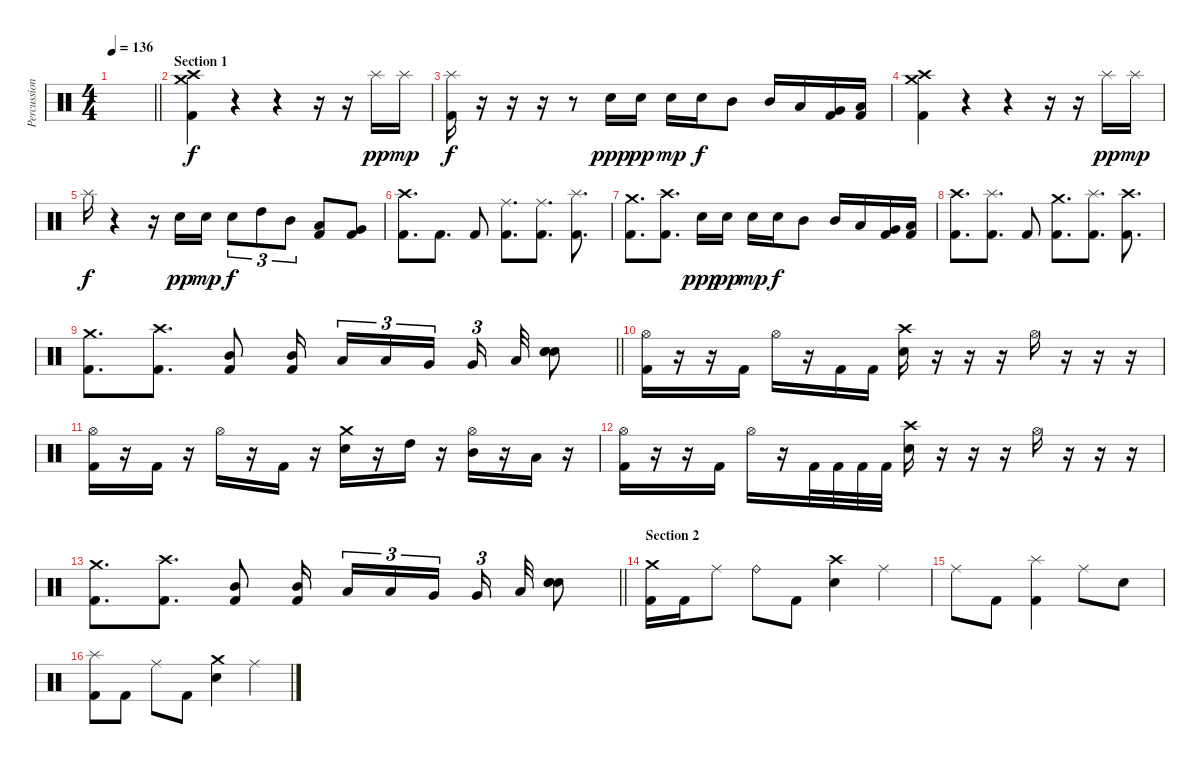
\track ("Percussion" "Percussion") {instrument percussion}
\staff {score}
\articulation defaults
\ts (4 4)
\tempo 136
\clef neutral
\barLineRight lightlight
\ks c
|
\section ("" "Section 1")
("Crash high (hit)" "Crash medium (hit)" "Kick (hit) 2").4 r.4 r.4 r.16 r.16 "Splash (hit)".16{dy pp} "Splash (hit)".16{dy mp} |
("Splash (hit)" "Kick (hit) 2").16{dy f} r.16 r.16 r.16 r.8 "Electric Snare (hit)".16{dy ppp} "Electric Snare (hit)".16{dy pp} "Electric Snare (hit)".16{dy mp} "Electric Snare (hit)".16{dy f} "Mid Tom (hit)".8 "Mid Tom (hit)".16 "Low Tom (hit)".16 ("Very Low Tom (hit)" "Kick (hit) 2").16 ("Low Floor Tom (hit)" "Kick (hit) 2").16 |
("Crash medium (hit)" "Crash high (hit)" "Kick (hit) 2").4 r.4 r.4 r.16 r.16 "Splash (hit)".16{dy pp} "Splash (hit)".16{dy mp} |
"Splash (hit)".16{dy f} r.4 r.16 "Electric Snare (hit)".16{dy pp} "Electric Snare (hit)".16{dy mp} "Electric Snare (hit)".8{tu (3 2) dy f} "High Tom (hit)".8{tu (3 2)} "Mid Tom (hit)".8{tu (3 2)} ("Low Tom (hit)" "Kick (hit) 2").8 ("Very Low Tom (hit)" "Kick (hit) 2").8 |
("Crash high (hit)" "Kick (hit) 2").8{d} "Kick (hit) 2".8{d} "Kick (hit) 2".8 ("Ride (middle)" "Kick (hit) 2").8{d} ("Ride (middle)" "Kick (hit) 2").8{d} ("Splash (hit)" "Kick (hit) 2").8{d} |
("Crash medium (hit)" "Kick (hit) 2").8{d} ("Crash high (hit)" "Kick (hit) 2").8{d} "Electric Snare (hit)".16{dy ppp} "Electric Snare (hit)".16{dy pp} "Electric Snare (hit)".16{dy mp} "Electric Snare (hit)".16{dy f} "Mid Tom (hit)".8 "Mid Tom (hit)".16 "Low Tom (hit)".16 ("Very Low Tom (hit)" "Kick (hit) 2").16 ("Low Floor Tom (hit)" "Kick (hit) 2").16 |
("Crash high (hit)" "Kick (hit) 2").8{d} ("Splash (hit)" "Kick (hit) 2").8{d} "Kick (hit) 2".8 ("Crash medium (hit)" "Kick (hit) 2").8{d} ("Splash (hit)" "Kick (hit) 2").8{d} ("Crash high (hit)" "Kick (hit) 2").8{d} |
\barLineRight lightlight
("Crash medium (hit)" "Kick (hit) 2").8{d} ("Crash high (hit)" "Kick (hit) 2").8{d} ("Mid Tom (hit)" "Kick (hit) 2").8 ("Mid Tom (hit)" "Kick (hit) 2").16{beam splitsecondary} "Low Tom (hit)".16{tu (3 2)} "Low Tom (hit)".16{tu (3 2)} "Very Low Tom (hit)".16{tu (3 2) beam splitsecondary} "Very Low Tom (hit)".16{tu (3 2)} "Low Floor Tom (hit)".32 ("Snare (hit) 2" "Snare (hit) 2" "Electric Snare (hit)").8 |
("Hi-Hat (open)" "Kick (hit) 2").16 r.16 r.16 "Kick (hit) 2".16 "Hi-Hat (open)".16 r.16 "Kick (hit) 2".16 "Kick (hit) 2".16 ("Crash high (hit)" "Electric Snare (hit)").16 r.16 r.16 r.16 "Hi-Hat (open)".16 r.16 r.16 r.16 |
("Hi-Hat (open)" "Kick (hit) 2").16 r.16 "Kick (hit) 2".16 r.16 "Hi-Hat (open)".16 r.16 "Kick (hit) 2".16 r.16 ("Crash medium (hit)" "Electric Snare (hit)").16 r.16 "High Tom (hit)".16 r.16 ("Hi-Hat (open)" "Mid Tom (hit)").16 r.16 "Low Tom (hit)".16 r.16 |
("Hi-Hat (open)" "Kick (hit) 2").16 r.16 r.16 "Kick (hit) 2".16 "Hi-Hat (open)".16 r.16 "Kick (hit) 2".32 "Kick (hit) 2".32 "Kick (hit) 2".32 "Kick (hit) 2".32 ("Crash high (hit)" "Electric Snare (hit)").16 r.16 r.16 r.16 "Hi-Hat (open)".16 r.16 r.16 r.16 |
\barLineRight lightlight
("Crash medium (hit)" "Kick (hit) 2").8{d} ("Crash high (hit)" "Kick (hit) 2").8{d} ("Mid Tom (hit)" "Kick (hit) 2").8 ("Mid Tom (hit)" "Kick (hit) 2").16{beam splitsecondary} "Low Tom (hit)".16{tu (3 2)} "Low Tom (hit)".16{tu (3 2)} "Very Low Tom (hit)".16{tu (3 2) beam splitsecondary} "Very Low Tom (hit)".16{tu (3 2)} "Low Floor Tom (hit)".32 ("Snare (hit) 2" "Snare (hit) 2" "Electric Snare (hit)").8 |
\section ("" "Section 2")
("Crash medium (hit)" "Kick (hit) 2").16 "Kick (hit) 2".16 "Ride (middle)".8 "Ride (bell)".8 "Kick (hit) 2".8 ("Crash high (hit)" "Electric Snare (hit)").4 "Ride (middle)".4 |
"Ride (middle)".8 "Kick (hit) 2".8 ("Splash (hit)" "Kick (hit) 2").4 "Ride (middle)".8 "Electric Snare (hit)".8 |
("Splash (hit)" "Kick (hit) 2").8 "Kick (hit) 2".8 "Ride (middle)".8 "Kick (hit) 2".8 ("Crash medium (hit)" "Electric Snare (hit)").4 "Ride (middle)".4
